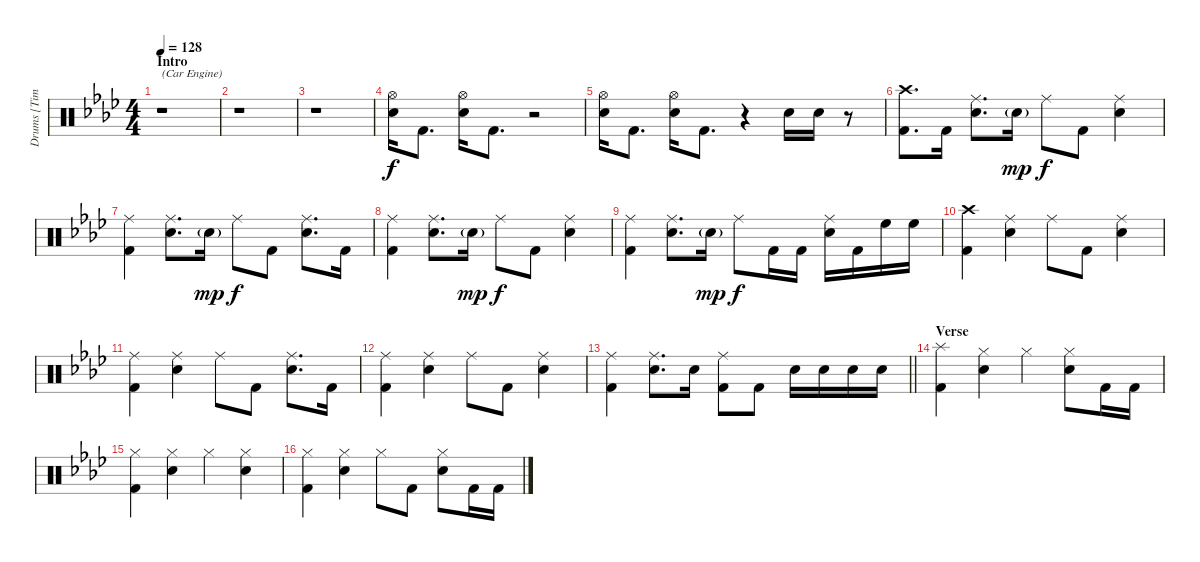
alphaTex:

\track ("Drums [Tim Alexander]" "Drums [Tim") {instrument percussion}
\staff {score}
\articulation defaults
\ts (4 4)
\section ("" "Intro")
\tempo 128
\clef neutral
\ks ab
r.1{txt "(Car Engine)" dy f} |
r.1 |
r.1 |
("Hi-Hat (open)" "Electric Snare (hit)").16 "Kick (hit) 2".8{d} ("Hi-Hat (open)" "Electric Snare (hit)").16 "Kick (hit) 2".8{d} r.2 |
("Hi-Hat (open)" "Electric Snare (hit)").16 "Kick (hit) 2".8{d} ("Hi-Hat (open)" "Electric Snare (hit)").16 "Kick (hit) 2".8{d} r.4 "Electric Snare (hit)".16 "Electric Snare (hit)".16 r.8 |
("Crash high (hit)" "Kick (hit) 2").8{d} "Kick (hit) 2".16 ("Ride (middle)" "Electric Snare (hit)").8{d} "Electric Snare (hit)"{g}.16{dy mp} "Ride (middle)".8{dy f} "Kick (hit) 2".8 ("Ride (middle)" "Electric Snare (hit)").4 |
("Ride (middle)" "Kick (hit) 2").4 ("Ride (middle)" "Electric Snare (hit)").8{d} "Electric Snare (hit)"{g}.16{dy mp} "Ride (middle)".8{dy f} "Kick (hit) 2".8 ("Ride (middle)" "Electric Snare (hit)").8{d} "Kick (hit) 2".16 |
("Ride (middle)" "Kick (hit) 2").4 ("Ride (middle)" "Electric Snare (hit)").8{d} "Electric Snare (hit)"{g}.16{dy mp} "Ride (middle)".8{dy f} "Kick (hit) 2".8 ("Ride (middle)" "Electric Snare (hit)").4 |
("Ride (middle)" "Kick (hit) 2").4 ("Ride (middle)" "Electric Snare (hit)").8{d} "Electric Snare (hit)"{g}.16{dy mp} "Ride (middle)".8{dy f} "Kick (hit) 2".16 "Kick (hit) 2".16 ("Ride (middle)" "Electric Snare (hit)").16 "Kick (hit) 2".16 "High Floor Tom (hit)".16 "High Floor Tom (hit)".16 |
("Crash high (hit)" "Kick (hit) 2").4 ("Ride (middle)" "Electric Snare (hit)").4 "Ride (middle)".8 "Kick (hit) 2".8 ("Ride (middle)" "Electric Snare (hit)").4 |
("Ride (middle)" "Kick (hit) 2").4 ("Ride (middle)" "Electric Snare (hit)").4 "Ride (middle)".8 "Kick (hit) 2".8 ("Ride (middle)" "Electric Snare (hit)").8{d} "Kick (hit) 2".16 |
("Ride (middle)" "Kick (hit) 2").4 ("Ride (middle)" "Electric Snare (hit)").4 "Ride (middle)".8 "Kick (hit) 2".8 ("Ride (middle)" "Electric Snare (hit)").4 |
\barLineRight lightlight
("Ride (middle)" "Kick (hit) 2").4 ("Ride (middle)" "Electric Snare (hit)").8{d} "Electric Snare (hit)".16 ("Ride (middle)" "Kick (hit) 2").8 "Kick (hit) 2".8 "Electric Snare (hit)".16 "Electric Snare (hit)".16 "Electric Snare (hit)".16 "Electric Snare (hit)".16 |
\section ("" "Verse")
("Splash (hit)" "Kick (hit) 2").4 ("Hi-Hat (closed)" "Electric Snare (hit)").4 "Hi-Hat (closed)".4 ("Hi-Hat (closed)" "Electric Snare (hit)").8 "Kick (hit) 2".16 "Kick (hit) 2".16 |
("Hi-Hat (closed)" "Kick (hit) 2").4 ("Hi-Hat (closed)" "Electric Snare (hit)").4 "Hi-Hat (closed)".4 ("Hi-Hat (closed)" "Electric Snare (hit)").4 |
("Hi-Hat (closed)" "Kick (hit) 2").4 ("Hi-Hat (closed)" "Electric Snare (hit)").4 "Hi-Hat (closed)".8 "Kick (hit) 2".8 ("Hi-Hat (closed)" "Electric Snare (hit)").8 "Kick (hit) 2".16 "Kick (hit) 2".16
